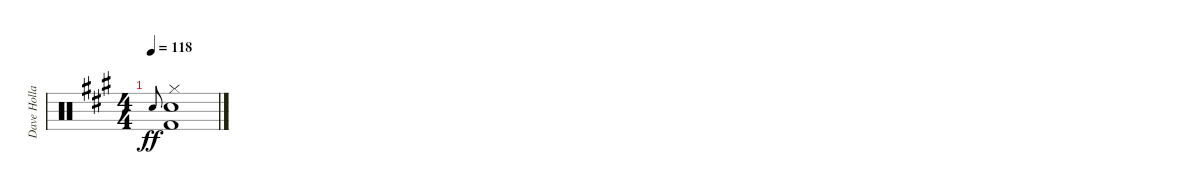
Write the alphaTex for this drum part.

\track ("Dave Holland" "Dave Holla") {instrument percussion}
\staff {score}
\articulation defaults
\ts (4 4)
\tempo 118
\clef neutral
\ks f#minor "Snare (hit) 2".8{gr onbeat dy ff}
("Hi-Hat (closed)" "Snare (hit) 2" "Kick (hit) 2").1
